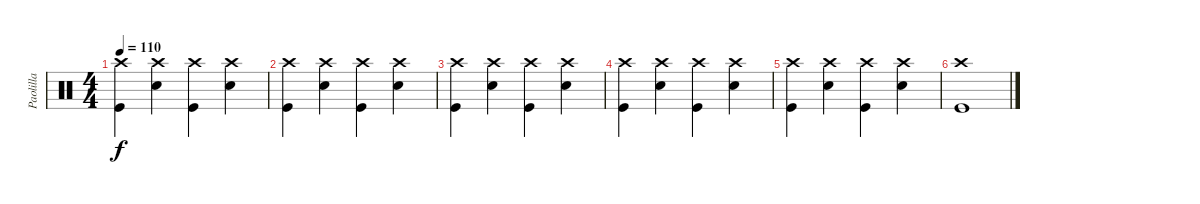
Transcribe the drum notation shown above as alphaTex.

\track ("Paolilla" "Paolilla") {instrument percussion}
\staff {score}
\articulation defaults
\ts (4 4)
\tempo 110
\clef neutral
\ks c
("Crash high (hit)" "Kick (hit)").4{dy f} ("Crash high (hit)" "Snare (hit) 2").4 ("Crash high (hit)" "Kick (hit)").4 ("Crash high (hit)" "Snare (hit) 2").4 |
("Crash high (hit)" "Kick (hit)").4 ("Crash high (hit)" "Snare (hit) 2").4 ("Crash high (hit)" "Kick (hit)").4 ("Crash high (hit)" "Snare (hit) 2").4 |
("Crash high (hit)" "Kick (hit)").4 ("Crash high (hit)" "Snare (hit) 2").4 ("Crash high (hit)" "Kick (hit)").4 ("Crash high (hit)" "Snare (hit) 2").4 |
("Crash high (hit)" "Kick (hit)").4 ("Crash high (hit)" "Snare (hit) 2").4 ("Crash high (hit)" "Kick (hit)").4 ("Crash high (hit)" "Snare (hit) 2").4 |
("Crash high (hit)" "Kick (hit)").4 ("Crash high (hit)" "Snare (hit) 2").4 ("Crash high (hit)" "Kick (hit)").4 ("Crash high (hit)" "Snare (hit) 2").4 |
("Crash high (hit)" "Kick (hit)").1
